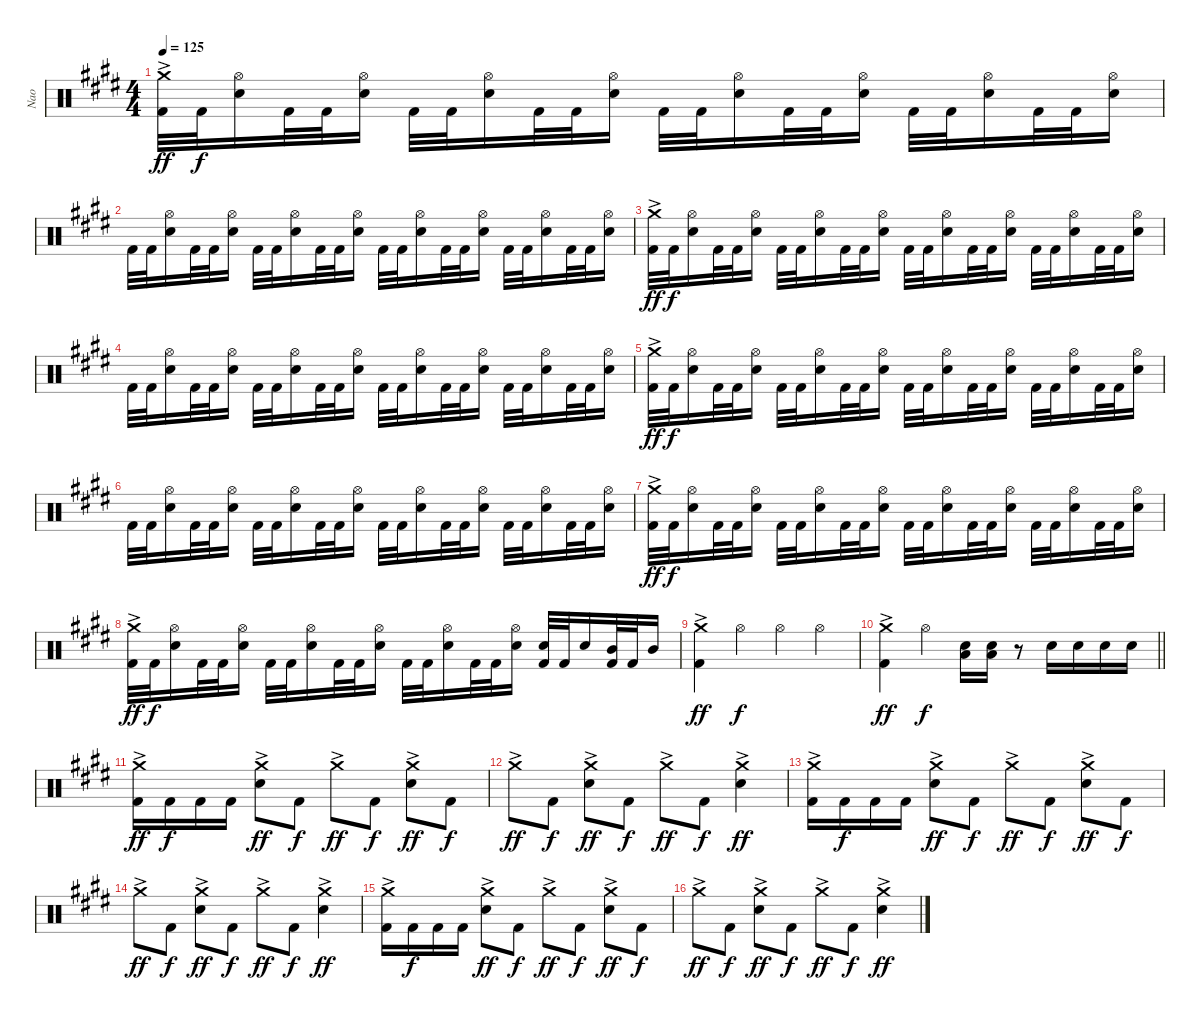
\track ("Nao" "Nao") {instrument percussion}
\staff {score}
\articulation defaults
\ts (4 4)
\tempo 125
\clef neutral
\ks e
("Crash medium (hit)"{ac} "Kick (hit) 2").32{dy ff} "Kick (hit) 2".32{dy f} ("Hi-Hat (open)" "Snare (hit) 2").16 "Kick (hit) 2".32 "Kick (hit) 2".32 ("Hi-Hat (open)" "Snare (hit) 2").16 "Kick (hit) 2".32 "Kick (hit) 2".32 ("Hi-Hat (open)" "Snare (hit) 2").16 "Kick (hit) 2".32 "Kick (hit) 2".32 ("Hi-Hat (open)" "Snare (hit) 2").16 "Kick (hit) 2".32 "Kick (hit) 2".32 ("Hi-Hat (open)" "Snare (hit) 2").16 "Kick (hit) 2".32 "Kick (hit) 2".32 ("Hi-Hat (open)" "Snare (hit) 2").16 "Kick (hit) 2".32 "Kick (hit) 2".32 ("Hi-Hat (open)" "Snare (hit) 2").16 "Kick (hit) 2".32 "Kick (hit) 2".32 ("Hi-Hat (open)" "Snare (hit) 2").16 |
"Kick (hit) 2".32 "Kick (hit) 2".32 ("Hi-Hat (open)" "Snare (hit) 2").16 "Kick (hit) 2".32 "Kick (hit) 2".32 ("Hi-Hat (open)" "Snare (hit) 2").16 "Kick (hit) 2".32 "Kick (hit) 2".32 ("Hi-Hat (open)" "Snare (hit) 2").16 "Kick (hit) 2".32 "Kick (hit) 2".32 ("Hi-Hat (open)" "Snare (hit) 2").16 "Kick (hit) 2".32 "Kick (hit) 2".32 ("Hi-Hat (open)" "Snare (hit) 2").16 "Kick (hit) 2".32 "Kick (hit) 2".32 ("Hi-Hat (open)" "Snare (hit) 2").16 "Kick (hit) 2".32 "Kick (hit) 2".32 ("Hi-Hat (open)" "Snare (hit) 2").16 "Kick (hit) 2".32 "Kick (hit) 2".32 ("Hi-Hat (open)" "Snare (hit) 2").16 |
("Crash medium (hit)"{ac} "Kick (hit) 2").32{dy ff} "Kick (hit) 2".32{dy f} ("Hi-Hat (open)" "Snare (hit) 2").16 "Kick (hit) 2".32 "Kick (hit) 2".32 ("Hi-Hat (open)" "Snare (hit) 2").16 "Kick (hit) 2".32 "Kick (hit) 2".32 ("Hi-Hat (open)" "Snare (hit) 2").16 "Kick (hit) 2".32 "Kick (hit) 2".32 ("Hi-Hat (open)" "Snare (hit) 2").16 "Kick (hit) 2".32 "Kick (hit) 2".32 ("Hi-Hat (open)" "Snare (hit) 2").16 "Kick (hit) 2".32 "Kick (hit) 2".32 ("Hi-Hat (open)" "Snare (hit) 2").16 "Kick (hit) 2".32 "Kick (hit) 2".32 ("Hi-Hat (open)" "Snare (hit) 2").16 "Kick (hit) 2".32 "Kick (hit) 2".32 ("Hi-Hat (open)" "Snare (hit) 2").16 |
"Kick (hit) 2".32 "Kick (hit) 2".32 ("Hi-Hat (open)" "Snare (hit) 2").16 "Kick (hit) 2".32 "Kick (hit) 2".32 ("Hi-Hat (open)" "Snare (hit) 2").16 "Kick (hit) 2".32 "Kick (hit) 2".32 ("Hi-Hat (open)" "Snare (hit) 2").16 "Kick (hit) 2".32 "Kick (hit) 2".32 ("Hi-Hat (open)" "Snare (hit) 2").16 "Kick (hit) 2".32 "Kick (hit) 2".32 ("Hi-Hat (open)" "Snare (hit) 2").16 "Kick (hit) 2".32 "Kick (hit) 2".32 ("Hi-Hat (open)" "Snare (hit) 2").16 "Kick (hit) 2".32 "Kick (hit) 2".32 ("Hi-Hat (open)" "Snare (hit) 2").16 "Kick (hit) 2".32 "Kick (hit) 2".32 ("Hi-Hat (open)" "Snare (hit) 2").16 |
("Crash medium (hit)"{ac} "Kick (hit) 2").32{dy ff} "Kick (hit) 2".32{dy f} ("Hi-Hat (open)" "Snare (hit) 2").16 "Kick (hit) 2".32 "Kick (hit) 2".32 ("Hi-Hat (open)" "Snare (hit) 2").16 "Kick (hit) 2".32 "Kick (hit) 2".32 ("Hi-Hat (open)" "Snare (hit) 2").16 "Kick (hit) 2".32 "Kick (hit) 2".32 ("Hi-Hat (open)" "Snare (hit) 2").16 "Kick (hit) 2".32 "Kick (hit) 2".32 ("Hi-Hat (open)" "Snare (hit) 2").16 "Kick (hit) 2".32 "Kick (hit) 2".32 ("Hi-Hat (open)" "Snare (hit) 2").16 "Kick (hit) 2".32 "Kick (hit) 2".32 ("Hi-Hat (open)" "Snare (hit) 2").16 "Kick (hit) 2".32 "Kick (hit) 2".32 ("Hi-Hat (open)" "Snare (hit) 2").16 |
"Kick (hit) 2".32 "Kick (hit) 2".32 ("Hi-Hat (open)" "Snare (hit) 2").16 "Kick (hit) 2".32 "Kick (hit) 2".32 ("Hi-Hat (open)" "Snare (hit) 2").16 "Kick (hit) 2".32 "Kick (hit) 2".32 ("Hi-Hat (open)" "Snare (hit) 2").16 "Kick (hit) 2".32 "Kick (hit) 2".32 ("Hi-Hat (open)" "Snare (hit) 2").16 "Kick (hit) 2".32 "Kick (hit) 2".32 ("Hi-Hat (open)" "Snare (hit) 2").16 "Kick (hit) 2".32 "Kick (hit) 2".32 ("Hi-Hat (open)" "Snare (hit) 2").16 "Kick (hit) 2".32 "Kick (hit) 2".32 ("Hi-Hat (open)" "Snare (hit) 2").16 "Kick (hit) 2".32 "Kick (hit) 2".32 ("Hi-Hat (open)" "Snare (hit) 2").16 |
("Crash medium (hit)"{ac} "Kick (hit) 2").32{dy ff} "Kick (hit) 2".32{dy f} ("Hi-Hat (open)" "Snare (hit) 2").16 "Kick (hit) 2".32 "Kick (hit) 2".32 ("Hi-Hat (open)" "Snare (hit) 2").16 "Kick (hit) 2".32 "Kick (hit) 2".32 ("Hi-Hat (open)" "Snare (hit) 2").16 "Kick (hit) 2".32 "Kick (hit) 2".32 ("Hi-Hat (open)" "Snare (hit) 2").16 "Kick (hit) 2".32 "Kick (hit) 2".32 ("Hi-Hat (open)" "Snare (hit) 2").16 "Kick (hit) 2".32 "Kick (hit) 2".32 ("Hi-Hat (open)" "Snare (hit) 2").16 "Kick (hit) 2".32 "Kick (hit) 2".32 ("Hi-Hat (open)" "Snare (hit) 2").16 "Kick (hit) 2".32 "Kick (hit) 2".32 ("Hi-Hat (open)" "Snare (hit) 2").16 |
("Crash medium (hit)"{ac} "Kick (hit) 2").32{dy ff} "Kick (hit) 2".32{dy f} ("Hi-Hat (open)" "Snare (hit) 2").16 "Kick (hit) 2".32 "Kick (hit) 2".32 ("Hi-Hat (open)" "Snare (hit) 2").16 "Kick (hit) 2".32 "Kick (hit) 2".32 ("Hi-Hat (open)" "Snare (hit) 2").16 "Kick (hit) 2".32 "Kick (hit) 2".32 ("Hi-Hat (open)" "Snare (hit) 2").16 "Kick (hit) 2".32 "Kick (hit) 2".32 ("Hi-Hat (open)" "Snare (hit) 2").16 "Kick (hit) 2".32 "Kick (hit) 2".32 ("Hi-Hat (open)" "Snare (hit) 2").16 ("Snare (hit) 2" "Kick (hit) 2").32 "Kick (hit) 2".32 "Snare (hit) 2".16 ("Mid Tom (hit)" "Kick (hit) 2").32 "Kick (hit) 2".32 "Mid Tom (hit)".16 |
("Crash medium (hit)"{ac} "Kick (hit) 2").4{dy ff} "Hi-Hat (open)".4{dy f} "Hi-Hat (open)".4 "Hi-Hat (open)".4 |
\barLineRight lightlight
("Crash medium (hit)"{ac} "Kick (hit) 2").4{dy ff} "Hi-Hat (open)".4{dy f} ("Snare (hit) 2" "Low Tom (hit)").16 ("Snare (hit) 2" "Low Tom (hit)").16 r.8 "Snare (hit) 2".16 "Snare (hit) 2".16 "Snare (hit) 2".16 "Snare (hit) 2".16 |
("Crash medium (hit)"{ac} "Kick (hit) 2").16{dy ff} "Kick (hit) 2".16{dy f} "Kick (hit) 2".16 "Kick (hit) 2".16 ("Crash medium (hit)"{ac} "Snare (hit) 2").8{dy ff} "Kick (hit) 2".8{dy f} "Crash medium (hit)"{ac}.8{dy ff} "Kick (hit) 2".8{dy f} ("Crash medium (hit)"{ac} "Snare (hit) 2").8{dy ff} "Kick (hit) 2".8{dy f} |
"Crash medium (hit)"{ac}.8{dy ff} "Kick (hit) 2".8{dy f} ("Crash medium (hit)"{ac} "Snare (hit) 2").8{dy ff} "Kick (hit) 2".8{dy f} "Crash medium (hit)"{ac}.8{dy ff} "Kick (hit) 2".8{dy f} ("Crash medium (hit)"{ac} "Snare (hit) 2").4{dy ff} |
("Crash medium (hit)"{ac} "Kick (hit) 2").16 "Kick (hit) 2".16{dy f} "Kick (hit) 2".16 "Kick (hit) 2".16 ("Crash medium (hit)"{ac} "Snare (hit) 2").8{dy ff} "Kick (hit) 2".8{dy f} "Crash medium (hit)"{ac}.8{dy ff} "Kick (hit) 2".8{dy f} ("Crash medium (hit)"{ac} "Snare (hit) 2").8{dy ff} "Kick (hit) 2".8{dy f} |
"Crash medium (hit)"{ac}.8{dy ff} "Kick (hit) 2".8{dy f} ("Crash medium (hit)"{ac} "Snare (hit) 2").8{dy ff} "Kick (hit) 2".8{dy f} "Crash medium (hit)"{ac}.8{dy ff} "Kick (hit) 2".8{dy f} ("Crash medium (hit)"{ac} "Snare (hit) 2").4{dy ff} |
("Crash medium (hit)"{ac} "Kick (hit) 2").16 "Kick (hit) 2".16{dy f} "Kick (hit) 2".16 "Kick (hit) 2".16 ("Crash medium (hit)"{ac} "Snare (hit) 2").8{dy ff} "Kick (hit) 2".8{dy f} "Crash medium (hit)"{ac}.8{dy ff} "Kick (hit) 2".8{dy f} ("Crash medium (hit)"{ac} "Snare (hit) 2").8{dy ff} "Kick (hit) 2".8{dy f} |
"Crash medium (hit)"{ac}.8{dy ff} "Kick (hit) 2".8{dy f} ("Crash medium (hit)"{ac} "Snare (hit) 2").8{dy ff} "Kick (hit) 2".8{dy f} "Crash medium (hit)"{ac}.8{dy ff} "Kick (hit) 2".8{dy f} ("Crash medium (hit)"{ac} "Snare (hit) 2").4{dy ff}
